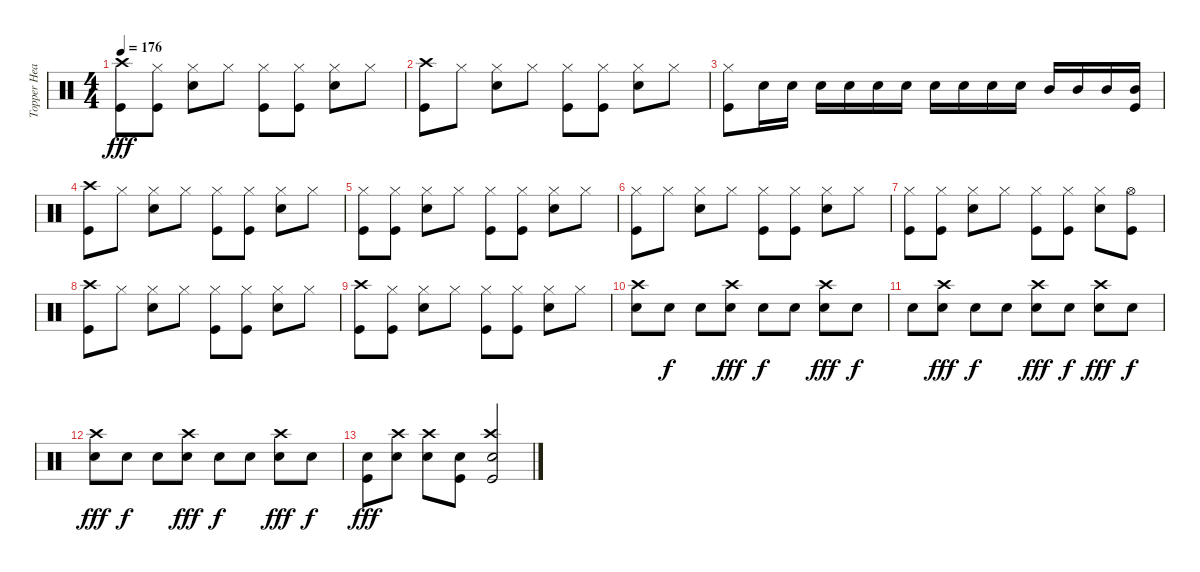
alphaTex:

\track ("Topper Headon - Drums" "Topper Hea") {instrument percussion}
\staff {score}
\articulation defaults
\ts (4 4)
\tempo 176
\clef neutral
\ks c
("Kick (hit)" "Crash high (hit)").8{dy fff} ("Kick (hit)" "Hi-Hat (closed)").8 ("Hi-Hat (closed)" "Snare (hit) 2").8 "Hi-Hat (closed)".8 ("Kick (hit)" "Hi-Hat (closed)").8 ("Kick (hit)" "Hi-Hat (closed)").8 ("Hi-Hat (closed)" "Snare (hit) 2").8 "Hi-Hat (closed)".8 |
("Crash high (hit)" "Kick (hit)").8 "Hi-Hat (closed)".8 ("Hi-Hat (closed)" "Snare (hit) 2").8 "Hi-Hat (closed)".8 ("Hi-Hat (closed)" "Kick (hit)").8 ("Hi-Hat (closed)" "Kick (hit)").8 ("Hi-Hat (closed)" "Snare (hit) 2").8 "Hi-Hat (closed)".8 |
("Kick (hit)" "Hi-Hat (closed)").8 "Snare (hit) 2".16 "Snare (hit) 2".16 "Snare (hit) 2".16 "Snare (hit) 2".16 "Snare (hit) 2".16 "Snare (hit) 2".16 "Snare (hit) 2".16 "Snare (hit) 2".16 "Snare (hit) 2".16 "Snare (hit) 2".16 "Mid Tom (hit)".16 "Mid Tom (hit)".16 "Mid Tom (hit)".16 ("Mid Tom (hit)" "Kick (hit)").16 |
("Crash high (hit)" "Kick (hit)").8 "Hi-Hat (closed)".8 ("Hi-Hat (closed)" "Snare (hit) 2").8 "Hi-Hat (closed)".8 ("Hi-Hat (closed)" "Kick (hit)").8 ("Hi-Hat (closed)" "Kick (hit)").8 ("Hi-Hat (closed)" "Snare (hit) 2").8 "Hi-Hat (closed)".8 |
("Kick (hit)" "Hi-Hat (closed)").8 ("Kick (hit)" "Hi-Hat (closed)").8 ("Hi-Hat (closed)" "Snare (hit) 2").8 "Hi-Hat (closed)".8 ("Kick (hit)" "Hi-Hat (closed)").8 ("Kick (hit)" "Hi-Hat (closed)").8 ("Hi-Hat (closed)" "Snare (hit) 2").8 "Hi-Hat (closed)".8 |
("Hi-Hat (closed)" "Kick (hit)").8 "Hi-Hat (closed)".8 ("Hi-Hat (closed)" "Snare (hit) 2").8 "Hi-Hat (closed)".8 ("Hi-Hat (closed)" "Kick (hit)").8 ("Hi-Hat (closed)" "Kick (hit)").8 ("Hi-Hat (closed)" "Snare (hit) 2").8 "Hi-Hat (closed)".8 |
("Kick (hit)" "Hi-Hat (closed)").8 ("Kick (hit)" "Hi-Hat (closed)").8 ("Hi-Hat (closed)" "Snare (hit) 2").8 "Hi-Hat (closed)".8 ("Kick (hit)" "Hi-Hat (closed)").8 ("Kick (hit)" "Hi-Hat (closed)").8 ("Hi-Hat (closed)" "Snare (hit) 2").8 ("Kick (hit)" "Hi-Hat (open)").8 |
("Crash high (hit)" "Kick (hit)").8 "Hi-Hat (closed)".8 ("Hi-Hat (closed)" "Snare (hit) 2").8 "Hi-Hat (closed)".8 ("Hi-Hat (closed)" "Kick (hit)").8 ("Hi-Hat (closed)" "Kick (hit)").8 ("Hi-Hat (closed)" "Snare (hit) 2").8 "Hi-Hat (closed)".8 |
("Kick (hit)" "Crash high (hit)").8 ("Kick (hit)" "Hi-Hat (closed)").8 ("Hi-Hat (closed)" "Snare (hit) 2").8 "Hi-Hat (closed)".8 ("Kick (hit)" "Hi-Hat (closed)").8 ("Kick (hit)" "Hi-Hat (closed)").8 ("Hi-Hat (closed)" "Snare (hit) 2").8 "Hi-Hat (closed)".8 |
("Snare (hit) 2" "Crash high (hit)").8 "Snare (hit) 2".8{dy f} "Snare (hit) 2".8 ("Snare (hit) 2" "Crash high (hit)").8{dy fff} "Snare (hit) 2".8{dy f} "Snare (hit) 2".8 ("Snare (hit) 2" "Crash high (hit)").8{dy fff} "Snare (hit) 2".8{dy f} |
"Snare (hit) 2".8 ("Snare (hit) 2" "Crash high (hit)").8{dy fff} "Snare (hit) 2".8{dy f} "Snare (hit) 2".8 ("Snare (hit) 2" "Crash high (hit)").8{dy fff} "Snare (hit) 2".8{dy f} ("Snare (hit) 2" "Crash high (hit)").8{dy fff} "Snare (hit) 2".8{dy f} |
("Snare (hit) 2" "Crash high (hit)").8{dy fff} "Snare (hit) 2".8{dy f} "Snare (hit) 2".8 ("Snare (hit) 2" "Crash high (hit)").8{dy fff} "Snare (hit) 2".8{dy f} "Snare (hit) 2".8 ("Snare (hit) 2" "Crash high (hit)").8{dy fff} "Snare (hit) 2".8{dy f} |
("Snare (hit) 2" "Kick (hit)").8{dy fff} ("Snare (hit) 2" "Crash high (hit)").8 ("Snare (hit) 2" "Crash high (hit)").8 ("Snare (hit) 2" "Kick (hit)").8 ("Snare (hit) 2" "Crash high (hit)" "Kick (hit)").2
